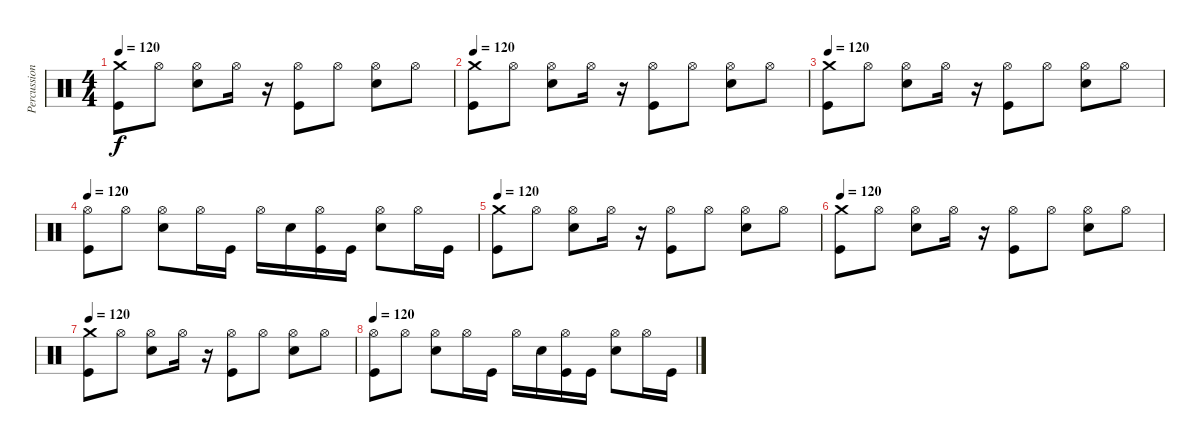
\track ("Percussion" "Percussion") {instrument percussion}
\staff {score}
\articulation defaults
\ts (4 4)
\tempo 120
\clef neutral
\ks c
("Kick (hit)" "Crash medium (hit)").8{dy f} "Hi-Hat (open)".8 ("Hi-Hat (open)" "Electric Snare (hit)").8 "Hi-Hat (open)".16 r.16 ("Kick (hit)" "Hi-Hat (open)").8 "Hi-Hat (open)".8 ("Hi-Hat (open)" "Electric Snare (hit)").8 "Hi-Hat (open)".8 |
\tempo 120
("Kick (hit)" "Crash medium (hit)").8 "Hi-Hat (open)".8 ("Hi-Hat (open)" "Electric Snare (hit)").8 "Hi-Hat (open)".16 r.16 ("Kick (hit)" "Hi-Hat (open)").8 "Hi-Hat (open)".8 ("Hi-Hat (open)" "Electric Snare (hit)").8 "Hi-Hat (open)".8 |
\tempo 120
("Kick (hit)" "Crash medium (hit)").8 "Hi-Hat (open)".8 ("Hi-Hat (open)" "Electric Snare (hit)").8 "Hi-Hat (open)".16 r.16 ("Kick (hit)" "Hi-Hat (open)").8 "Hi-Hat (open)".8 ("Hi-Hat (open)" "Electric Snare (hit)").8 "Hi-Hat (open)".8 |
\tempo 120
("Kick (hit)" "Hi-Hat (open)").8 "Hi-Hat (open)".8 ("Hi-Hat (open)" "Electric Snare (hit)").8 "Hi-Hat (open)".16 "Kick (hit)".16 "Hi-Hat (open)".16 "Electric Snare (hit)".16 ("Kick (hit)" "Hi-Hat (open)").16 "Kick (hit)".16 ("Hi-Hat (open)" "Electric Snare (hit)").8 "Hi-Hat (open)".16 "Kick (hit)".16 |
\tempo 120
("Kick (hit)" "Crash medium (hit)").8 "Hi-Hat (open)".8 ("Hi-Hat (open)" "Electric Snare (hit)").8 "Hi-Hat (open)".16 r.16 ("Kick (hit)" "Hi-Hat (open)").8 "Hi-Hat (open)".8 ("Hi-Hat (open)" "Electric Snare (hit)").8 "Hi-Hat (open)".8 |
\tempo 120
("Kick (hit)" "Crash medium (hit)").8 "Hi-Hat (open)".8 ("Hi-Hat (open)" "Electric Snare (hit)").8 "Hi-Hat (open)".16 r.16 ("Kick (hit)" "Hi-Hat (open)").8 "Hi-Hat (open)".8 ("Hi-Hat (open)" "Electric Snare (hit)").8 "Hi-Hat (open)".8 |
\tempo 120
("Kick (hit)" "Crash medium (hit)").8 "Hi-Hat (open)".8 ("Hi-Hat (open)" "Electric Snare (hit)").8 "Hi-Hat (open)".16 r.16 ("Kick (hit)" "Hi-Hat (open)").8 "Hi-Hat (open)".8 ("Hi-Hat (open)" "Electric Snare (hit)").8 "Hi-Hat (open)".8 |
\tempo 120
("Kick (hit)" "Hi-Hat (open)").8 "Hi-Hat (open)".8 ("Hi-Hat (open)" "Electric Snare (hit)").8 "Hi-Hat (open)".16 "Kick (hit)".16 "Hi-Hat (open)".16 "Electric Snare (hit)".16 ("Kick (hit)" "Hi-Hat (open)").16 "Kick (hit)".16 ("Hi-Hat (open)" "Electric Snare (hit)").8 "Hi-Hat (open)".16 "Kick (hit)".16
